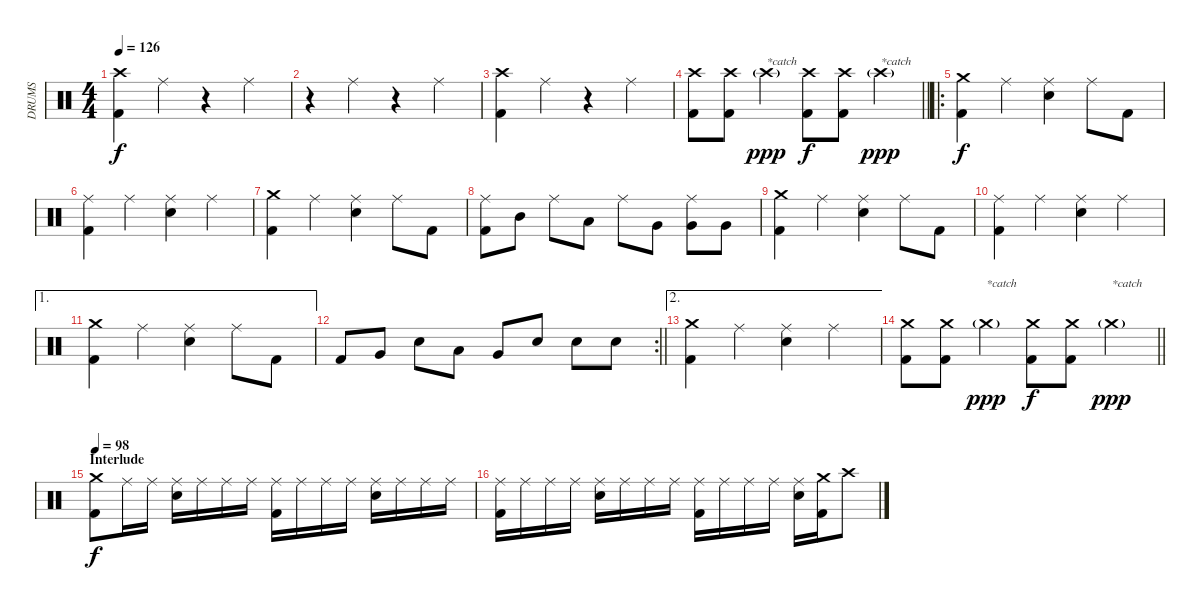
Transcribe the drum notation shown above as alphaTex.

\track ("DRUMS" "DRUMS") {instrument percussion}
\staff {score}
\articulation defaults
\ts (4 4)
\tempo 126
\clef neutral
\ks c
("Crash high (hit)" "Kick (hit) 2").4{dy f} "Ride (middle)".4 r.4 "Ride (middle)".4 |
r.4 "Ride (middle)".4 r.4 "Ride (middle)".4 |
("Crash high (hit)" "Kick (hit) 2").4 "Ride (middle)".4 r.4 "Ride (middle)".4 |
\barLineRight lightlight
("Crash high (hit)" "Kick (hit) 2").8 ("Crash high (hit)" "Kick (hit) 2").8 "Crash high (hit)"{g}.4{txt "*catch" dy ppp} ("Crash high (hit)" "Kick (hit) 2").8{dy f} ("Crash high (hit)" "Kick (hit) 2").8 "Crash high (hit)"{g}.4{txt "*catch" dy ppp} |
\ro
("Crash medium (hit)" "Kick (hit) 2").4{dy f} "Ride (middle)".4 ("Ride (middle)" "Snare (hit) 2").4 "Ride (middle)".8 "Kick (hit) 2".8 |
("Ride (middle)" "Kick (hit) 2").4 "Ride (middle)".4 ("Ride (middle)" "Snare (hit) 2").4 "Ride (middle)".4 |
("Crash medium (hit)" "Kick (hit) 2").4 "Ride (middle)".4 ("Ride (middle)" "Snare (hit) 2").4 "Ride (middle)".8 "Kick (hit) 2".8 |
("Ride (middle)" "Kick (hit) 2").8 "Mid Tom (hit)".8 "Ride (middle)".8 "Low Tom (hit)".8 "Ride (middle)".8 "Very Low Tom (hit)".8 ("Ride (middle)" "Very Low Tom (hit)").8 "Very Low Tom (hit)".8 |
("Crash medium (hit)" "Kick (hit) 2").4 "Ride (middle)".4 ("Ride (middle)" "Snare (hit) 2").4 "Ride (middle)".8 "Kick (hit) 2".8 |
("Ride (middle)" "Kick (hit) 2").4 "Ride (middle)".4 ("Ride (middle)" "Snare (hit) 2").4 "Ride (middle)".4 |
\ae 1
("Crash medium (hit)" "Kick (hit) 2").4 "Ride (middle)".4 ("Ride (middle)" "Snare (hit) 2").4 "Ride (middle)".8 "Kick (hit) 2".8 |
\rc 2
\barLineRight lightlight "Kick (hit) 2".8 "Very Low Tom (hit)".8 "Snare (hit) 2".8 "Low Tom (hit)".8 "Very Low Tom (hit)".8 "Snare (hit) 2".8 "Snare (hit) 2".8 "Snare (hit) 2".8
|
\ae 2
("Crash medium (hit)" "Kick (hit) 2").4 "Ride (middle)".4 ("Ride (middle)" "Snare (hit) 2").4 "Ride (middle)".4 |
\barLineRight lightlight
("Crash medium (hit)" "Kick (hit) 2").8 ("Crash medium (hit)" "Kick (hit) 2").8 "Crash medium (hit)"{g}.4{txt "*catch" dy ppp} ("Crash medium (hit)" "Kick (hit) 2").8{dy f} ("Crash medium (hit)" "Kick (hit) 2").8 "Crash medium (hit)"{g}.4{txt "*catch" dy ppp} |
\section ("" "Interlude")
\tempo 98
("Crash medium (hit)" "Kick (hit) 2").8{dy f} "Ride (middle)".16 "Ride (middle)".16 ("Ride (middle)" "Snare (hit) 2").16 "Ride (middle)".16 "Ride (middle)".16 "Ride (middle)".16 ("Ride (middle)" "Kick (hit) 2").16 "Ride (middle)".16 "Ride (middle)".16 "Ride (middle)".16 ("Ride (middle)" "Snare (hit) 2").16 "Ride (middle)".16 "Ride (middle)".16 "Ride (middle)".16 |
("Ride (middle)" "Kick (hit) 2").16 "Ride (middle)".16 "Ride (middle)".16 "Ride (middle)".16 ("Ride (middle)" "Snare (hit) 2").16 "Ride (middle)".16 "Ride (middle)".16 "Ride (middle)".16 ("Ride (middle)" "Kick (hit) 2").16 "Ride (middle)".16 "Ride (middle)".16 "Ride (middle)".16 ("Ride (middle)" "Snare (hit) 2").16 ("Crash medium (hit)" "Kick (hit) 2").16 "Crash high (hit)".8
